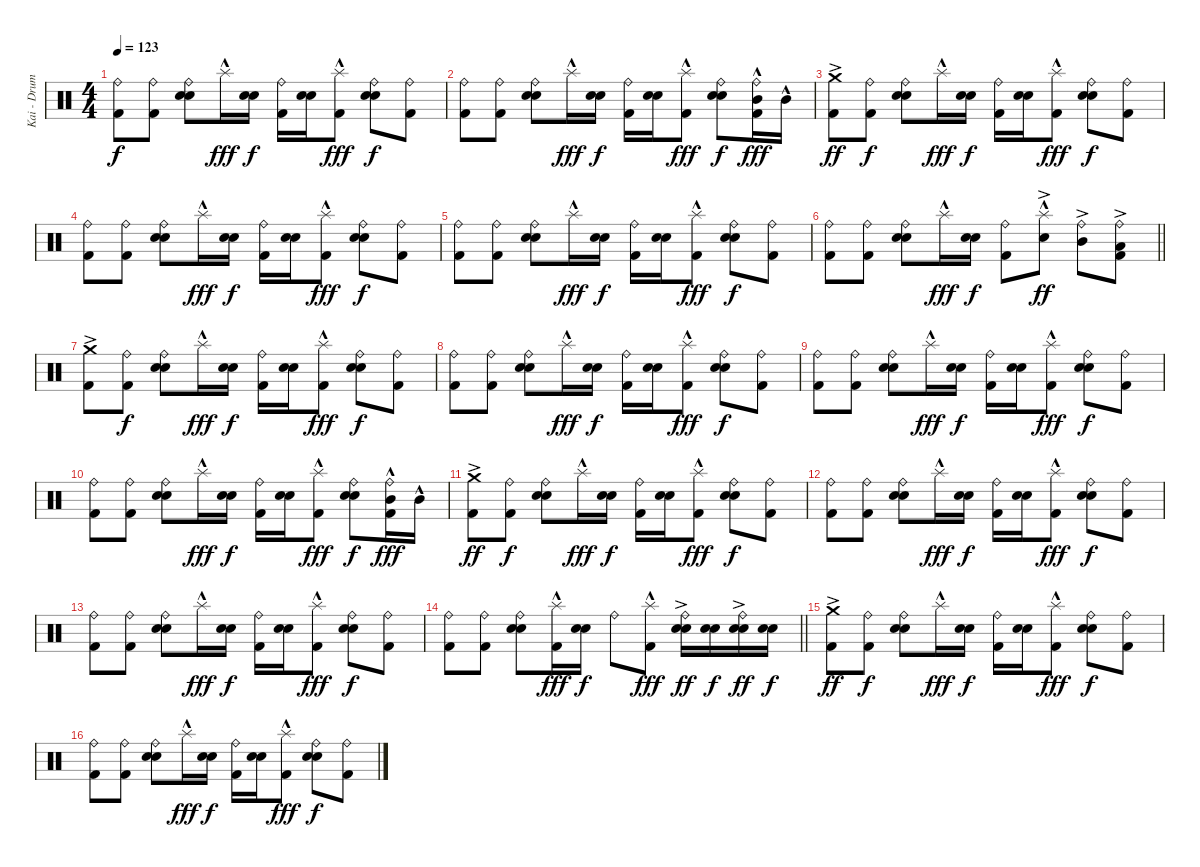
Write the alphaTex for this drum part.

\track ("Kai - Drums" "Kai - Drum") {instrument percussion}
\staff {score}
\articulation defaults
\ts (4 4)
\tempo 123
\clef neutral
\ks c
("Ride (bell)" "Kick (hit) 2").8{dy f} ("Ride (bell)" "Kick (hit) 2").8 ("Ride (bell)" "Electric Snare (hit)" "Snare (hit) 2").8 "Splash (hit)"{hac}.16{dy fff} ("Electric Snare (hit)" "Snare (hit) 2").16{dy f} ("Ride (bell)" "Kick (hit) 2").16 ("Electric Snare (hit)" "Snare (hit) 2").16 ("Splash (hit)"{hac} "Kick (hit) 2").8{dy fff} ("Ride (bell)" "Electric Snare (hit)" "Snare (hit) 2").8{dy f} ("Ride (bell)" "Kick (hit) 2").8 |
("Ride (bell)" "Kick (hit) 2").8 ("Ride (bell)" "Kick (hit) 2").8 ("Ride (bell)" "Electric Snare (hit)" "Snare (hit) 2").8 "Splash (hit)"{hac}.16{dy fff} ("Electric Snare (hit)" "Snare (hit) 2").16{dy f} ("Ride (bell)" "Kick (hit) 2").16 ("Electric Snare (hit)" "Snare (hit) 2").16 ("Splash (hit)"{hac} "Kick (hit) 2").8{dy fff} ("Ride (bell)" "Electric Snare (hit)" "Snare (hit) 2").8{dy f} ("Ride (bell)" "Mid Tom (hit)"{hac} "Kick (hit) 2").16{dy fff} "Mid Tom (hit)"{hac}.16 |
("Crash medium (hit)"{ac} "Kick (hit) 2").8{dy ff} ("Ride (bell)" "Kick (hit) 2").8{dy f} ("Ride (bell)" "Electric Snare (hit)" "Snare (hit) 2").8 "Splash (hit)"{hac}.16{dy fff} ("Electric Snare (hit)" "Snare (hit) 2").16{dy f} ("Ride (bell)" "Kick (hit) 2").16 ("Electric Snare (hit)" "Snare (hit) 2").16 ("Splash (hit)"{hac} "Kick (hit) 2").8{dy fff} ("Ride (bell)" "Electric Snare (hit)" "Snare (hit) 2").8{dy f} ("Ride (bell)" "Kick (hit) 2").8 |
("Ride (bell)" "Kick (hit) 2").8 ("Ride (bell)" "Kick (hit) 2").8 ("Ride (bell)" "Electric Snare (hit)" "Snare (hit) 2").8 "Splash (hit)"{hac}.16{dy fff} ("Electric Snare (hit)" "Snare (hit) 2").16{dy f} ("Ride (bell)" "Kick (hit) 2").16 ("Electric Snare (hit)" "Snare (hit) 2").16 ("Splash (hit)"{hac} "Kick (hit) 2").8{dy fff} ("Ride (bell)" "Electric Snare (hit)" "Snare (hit) 2").8{dy f} ("Ride (bell)" "Kick (hit) 2").8 |
("Ride (bell)" "Kick (hit) 2").8 ("Ride (bell)" "Kick (hit) 2").8 ("Ride (bell)" "Electric Snare (hit)" "Snare (hit) 2").8 "Splash (hit)"{hac}.16{dy fff} ("Electric Snare (hit)" "Snare (hit) 2").16{dy f} ("Ride (bell)" "Kick (hit) 2").16 ("Electric Snare (hit)" "Snare (hit) 2").16 ("Splash (hit)"{hac} "Kick (hit) 2").8{dy fff} ("Ride (bell)" "Electric Snare (hit)" "Snare (hit) 2").8{dy f} ("Ride (bell)" "Kick (hit) 2").8 |
\barLineRight lightlight
("Ride (bell)" "Kick (hit) 2").8 ("Ride (bell)" "Kick (hit) 2").8 ("Ride (bell)" "Electric Snare (hit)" "Snare (hit) 2").8 "Splash (hit)"{hac}.16{dy fff} ("Electric Snare (hit)" "Snare (hit) 2").16{dy f} ("Ride (bell)" "Kick (hit) 2").8 ("Splash (hit)"{hac} "Electric Snare (hit)"{ac}).8{dy ff} ("Ride (bell)" "Mid Tom (hit)"{ac}).8 ("Ride (bell)" "Low Tom (hit)"{ac} "Kick (hit) 2").8 |
\section ("" "")
("Crash medium (hit)"{ac} "Kick (hit) 2").8 ("Ride (bell)" "Kick (hit) 2").8{dy f} ("Ride (bell)" "Electric Snare (hit)" "Snare (hit) 2").8 "Splash (hit)"{hac}.16{dy fff} ("Electric Snare (hit)" "Snare (hit) 2").16{dy f} ("Ride (bell)" "Kick (hit) 2").16 ("Electric Snare (hit)" "Snare (hit) 2").16 ("Splash (hit)"{hac} "Kick (hit) 2").8{dy fff} ("Ride (bell)" "Electric Snare (hit)" "Snare (hit) 2").8{dy f} ("Ride (bell)" "Kick (hit) 2").8 |
("Ride (bell)" "Kick (hit) 2").8 ("Ride (bell)" "Kick (hit) 2").8 ("Ride (bell)" "Electric Snare (hit)" "Snare (hit) 2").8 "Splash (hit)"{hac}.16{dy fff} ("Electric Snare (hit)" "Snare (hit) 2").16{dy f} ("Ride (bell)" "Kick (hit) 2").16 ("Electric Snare (hit)" "Snare (hit) 2").16 ("Splash (hit)"{hac} "Kick (hit) 2").8{dy fff} ("Ride (bell)" "Electric Snare (hit)" "Snare (hit) 2").8{dy f} ("Ride (bell)" "Kick (hit) 2").8 |
("Ride (bell)" "Kick (hit) 2").8 ("Ride (bell)" "Kick (hit) 2").8 ("Ride (bell)" "Electric Snare (hit)" "Snare (hit) 2").8 "Splash (hit)"{hac}.16{dy fff} ("Electric Snare (hit)" "Snare (hit) 2").16{dy f} ("Ride (bell)" "Kick (hit) 2").16 ("Electric Snare (hit)" "Snare (hit) 2").16 ("Splash (hit)"{hac} "Kick (hit) 2").8{dy fff} ("Ride (bell)" "Electric Snare (hit)" "Snare (hit) 2").8{dy f} ("Ride (bell)" "Kick (hit) 2").8 |
("Ride (bell)" "Kick (hit) 2").8 ("Ride (bell)" "Kick (hit) 2").8 ("Ride (bell)" "Electric Snare (hit)" "Snare (hit) 2").8 "Splash (hit)"{hac}.16{dy fff} ("Electric Snare (hit)" "Snare (hit) 2").16{dy f} ("Ride (bell)" "Kick (hit) 2").16 ("Electric Snare (hit)" "Snare (hit) 2").16 ("Splash (hit)"{hac} "Kick (hit) 2").8{dy fff} ("Ride (bell)" "Electric Snare (hit)" "Snare (hit) 2").8{dy f} ("Ride (bell)" "Mid Tom (hit)"{hac} "Kick (hit) 2").16{dy fff} "Mid Tom (hit)"{hac}.16 |
("Crash medium (hit)"{ac} "Kick (hit) 2").8{dy ff} ("Ride (bell)" "Kick (hit) 2").8{dy f} ("Ride (bell)" "Electric Snare (hit)" "Snare (hit) 2").8 "Splash (hit)"{hac}.16{dy fff} ("Electric Snare (hit)" "Snare (hit) 2").16{dy f} ("Ride (bell)" "Kick (hit) 2").16 ("Electric Snare (hit)" "Snare (hit) 2").16 ("Splash (hit)"{hac} "Kick (hit) 2").8{dy fff} ("Ride (bell)" "Electric Snare (hit)" "Snare (hit) 2").8{dy f} ("Ride (bell)" "Kick (hit) 2").8 |
("Ride (bell)" "Kick (hit) 2").8 ("Ride (bell)" "Kick (hit) 2").8 ("Ride (bell)" "Electric Snare (hit)" "Snare (hit) 2").8 "Splash (hit)"{hac}.16{dy fff} ("Electric Snare (hit)" "Snare (hit) 2").16{dy f} ("Ride (bell)" "Kick (hit) 2").16 ("Electric Snare (hit)" "Snare (hit) 2").16 ("Splash (hit)"{hac} "Kick (hit) 2").8{dy fff} ("Ride (bell)" "Electric Snare (hit)" "Snare (hit) 2").8{dy f} ("Ride (bell)" "Kick (hit) 2").8 |
("Ride (bell)" "Kick (hit) 2").8 ("Ride (bell)" "Kick (hit) 2").8 ("Ride (bell)" "Electric Snare (hit)" "Snare (hit) 2").8 "Splash (hit)"{hac}.16{dy fff} ("Electric Snare (hit)" "Snare (hit) 2").16{dy f} ("Ride (bell)" "Kick (hit) 2").16 ("Electric Snare (hit)" "Snare (hit) 2").16 ("Splash (hit)"{hac} "Kick (hit) 2").8{dy fff} ("Ride (bell)" "Electric Snare (hit)" "Snare (hit) 2").8{dy f} ("Ride (bell)" "Kick (hit) 2").8 |
\barLineRight lightlight
("Ride (bell)" "Kick (hit) 2").8 ("Ride (bell)" "Kick (hit) 2").8 ("Ride (bell)" "Electric Snare (hit)" "Snare (hit) 2").8 ("Splash (hit)"{hac} "Kick (hit) 2").16{dy fff} ("Electric Snare (hit)" "Snare (hit) 2").16{dy f} "Ride (bell)".8 ("Splash (hit)"{hac} "Kick (hit) 2").8{dy fff} ("Ride (bell)" "Electric Snare (hit)"{ac} "Snare (hit) 2").16{dy ff} ("Electric Snare (hit)" "Snare (hit) 2").16{dy f} ("Ride (bell)" "Electric Snare (hit)"{ac} "Snare (hit) 2").16{dy ff} ("Electric Snare (hit)" "Snare (hit) 2").16{dy f} |
\section ("" "")
("Crash medium (hit)"{ac} "Kick (hit) 2").8{dy ff} ("Ride (bell)" "Kick (hit) 2").8{dy f} ("Ride (bell)" "Electric Snare (hit)" "Snare (hit) 2").8 "Splash (hit)"{hac}.16{dy fff} ("Electric Snare (hit)" "Snare (hit) 2").16{dy f} ("Ride (bell)" "Kick (hit) 2").16 ("Electric Snare (hit)" "Snare (hit) 2").16 ("Splash (hit)"{hac} "Kick (hit) 2").8{dy fff} ("Ride (bell)" "Electric Snare (hit)" "Snare (hit) 2").8{dy f} ("Ride (bell)" "Kick (hit) 2").8 |
("Ride (bell)" "Kick (hit) 2").8 ("Ride (bell)" "Kick (hit) 2").8 ("Ride (bell)" "Electric Snare (hit)" "Snare (hit) 2").8 "Splash (hit)"{hac}.16{dy fff} ("Electric Snare (hit)" "Snare (hit) 2").16{dy f} ("Ride (bell)" "Kick (hit) 2").16 ("Electric Snare (hit)" "Snare (hit) 2").16 ("Splash (hit)"{hac} "Kick (hit) 2").8{dy fff} ("Ride (bell)" "Electric Snare (hit)" "Snare (hit) 2").8{dy f} ("Ride (bell)" "Kick (hit) 2").8
